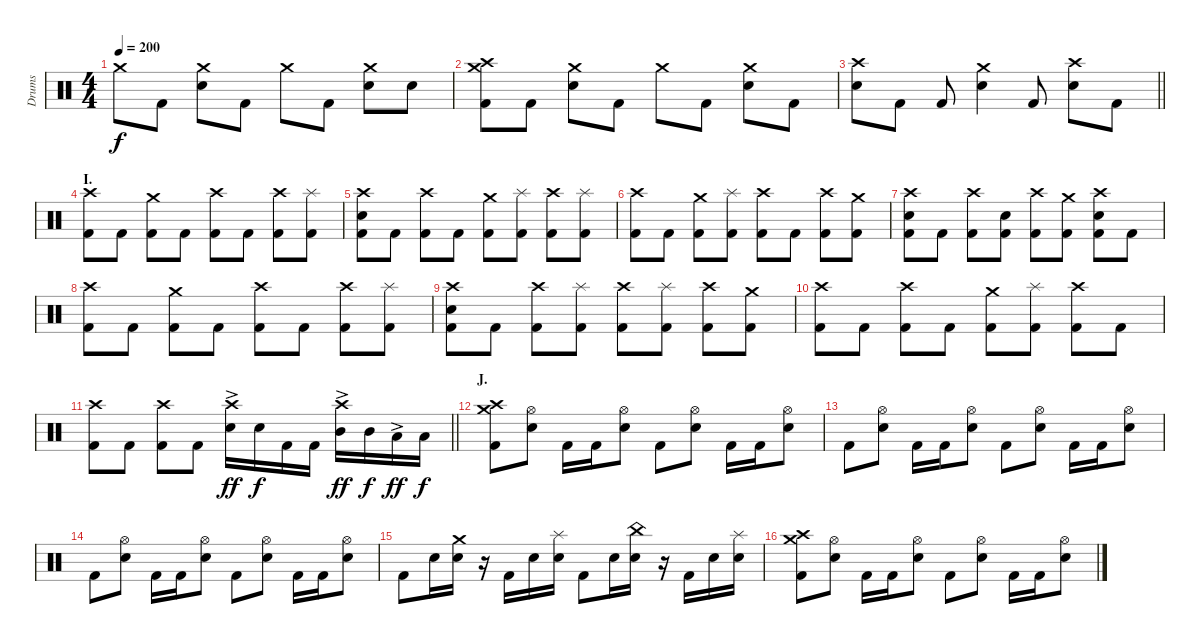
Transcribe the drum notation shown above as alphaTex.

\track ("Drums" "Drums") {instrument percussion}
\staff {score}
\articulation defaults
\ts (4 4)
\tempo 200
\clef neutral
\ks c "Crash medium (hit)".8{dy f} "Kick (hit) 2".8
("Crash medium (hit)" "Electric Snare (hit)").8 "Kick (hit) 2".8 "Crash medium (hit)".8 "Kick (hit) 2".8 ("Crash medium (hit)" "Electric Snare (hit)").8 "Electric Snare (hit)".8 |
("Crash medium (hit)" "Crash high (hit)" "Kick (hit) 2").8 "Kick (hit) 2".8 ("Crash medium (hit)" "Electric Snare (hit)").8 "Kick (hit) 2".8 "Crash medium (hit)".8 "Kick (hit) 2".8 ("Crash medium (hit)" "Electric Snare (hit)").8 "Kick (hit) 2".8 |
\barLineRight lightlight
("Crash high (hit)" "Electric Snare (hit)").8 "Kick (hit) 2".8 "Kick (hit) 2".8 ("Crash medium (hit)" "Electric Snare (hit)").4 "Kick (hit) 2".8 ("Crash high (hit)" "Electric Snare (hit)").8 "Kick (hit) 2".8 |
\section ("" "I.")
("Crash high (hit)" "Kick (hit) 2").8 "Kick (hit) 2".8 ("Crash medium (hit)" "Kick (hit) 2").8 "Kick (hit) 2".8 ("Crash high (hit)" "Kick (hit) 2").8 "Kick (hit) 2".8 ("Crash high (hit)" "Kick (hit) 2").8 ("Splash (hit)" "Kick (hit) 2").8 |
("Crash high (hit)" "Electric Snare (hit)" "Kick (hit) 2").8 "Kick (hit) 2".8 ("Crash high (hit)" "Kick (hit) 2").8 "Kick (hit) 2".8 ("Crash medium (hit)" "Kick (hit) 2").8 ("Splash (hit)" "Kick (hit) 2").8 ("Crash high (hit)" "Kick (hit) 2").8 ("Splash (hit)" "Kick (hit) 2").8 |
("Crash high (hit)" "Kick (hit) 2").8 "Kick (hit) 2".8 ("Crash medium (hit)" "Kick (hit) 2").8 ("Splash (hit)" "Kick (hit) 2").8 ("Crash high (hit)" "Kick (hit) 2").8 "Kick (hit) 2".8 ("Crash high (hit)" "Kick (hit) 2").8 ("Crash medium (hit)" "Kick (hit) 2").8 |
("Crash high (hit)" "Electric Snare (hit)" "Kick (hit) 2").8 "Kick (hit) 2".8 ("Crash high (hit)" "Kick (hit) 2").8 ("Electric Snare (hit)" "Kick (hit) 2").8 ("Crash high (hit)" "Kick (hit) 2").8 ("Crash medium (hit)" "Kick (hit) 2").8 ("Crash high (hit)" "Electric Snare (hit)" "Kick (hit) 2").8 "Kick (hit) 2".8 |
("Crash high (hit)" "Kick (hit) 2").8 "Kick (hit) 2".8 ("Crash medium (hit)" "Kick (hit) 2").8 "Kick (hit) 2".8 ("Crash high (hit)" "Kick (hit) 2").8 "Kick (hit) 2".8 ("Crash high (hit)" "Kick (hit) 2").8 ("Splash (hit)" "Kick (hit) 2").8 |
("Crash high (hit)" "Electric Snare (hit)" "Kick (hit) 2").8 "Kick (hit) 2".8 ("Crash high (hit)" "Kick (hit) 2").8 ("Splash (hit)" "Kick (hit) 2").8 ("Crash high (hit)" "Kick (hit) 2").8 ("Splash (hit)" "Kick (hit) 2").8 ("Crash high (hit)" "Kick (hit) 2").8 ("Crash medium (hit)" "Kick (hit) 2").8 |
("Crash high (hit)" "Kick (hit) 2").8 "Kick (hit) 2".8 ("Crash high (hit)" "Kick (hit) 2").8 "Kick (hit) 2".8 ("Crash medium (hit)" "Kick (hit) 2").8 ("Splash (hit)" "Kick (hit) 2").8 ("Crash high (hit)" "Kick (hit) 2").8 "Kick (hit) 2".8 |
\barLineRight lightlight
("Crash high (hit)" "Kick (hit) 2").8 "Kick (hit) 2".8 ("Crash high (hit)" "Kick (hit) 2").8 "Kick (hit) 2".8 ("Crash high (hit)" "Electric Snare (hit)"{ac}).16{dy ff} "Electric Snare (hit)".16{dy f} "Kick (hit) 2".16 "Kick (hit) 2".16 ("Crash high (hit)" "Mid Tom (hit)"{ac}).16{dy ff} "Mid Tom (hit)".16{dy f} "Low Tom (hit)"{ac}.16{dy ff} "Low Tom (hit)".16{dy f} |
\section ("" "J.")
("Crash medium (hit)" "Crash high (hit)" "Kick (hit) 2").8 ("Hi-Hat (open)" "Electric Snare (hit)").8 "Kick (hit) 2".16 "Kick (hit) 2".16 ("Hi-Hat (open)" "Electric Snare (hit)").8 "Kick (hit) 2".8 ("Hi-Hat (open)" "Electric Snare (hit)").8 "Kick (hit) 2".16 "Kick (hit) 2".16 ("Hi-Hat (open)" "Electric Snare (hit)").8 |
"Kick (hit) 2".8 ("Hi-Hat (open)" "Electric Snare (hit)").8 "Kick (hit) 2".16 "Kick (hit) 2".16 ("Hi-Hat (open)" "Electric Snare (hit)").8 "Kick (hit) 2".8 ("Hi-Hat (open)" "Electric Snare (hit)").8 "Kick (hit) 2".16 "Kick (hit) 2".16 ("Hi-Hat (open)" "Electric Snare (hit)").8 |
"Kick (hit) 2".8 ("Hi-Hat (open)" "Electric Snare (hit)").8 "Kick (hit) 2".16 "Kick (hit) 2".16 ("Hi-Hat (open)" "Electric Snare (hit)").8 "Kick (hit) 2".8 ("Hi-Hat (open)" "Electric Snare (hit)").8 "Kick (hit) 2".16 "Kick (hit) 2".16 ("Hi-Hat (open)" "Electric Snare (hit)").8 |
"Kick (hit) 2".8 "Electric Snare (hit)".16 ("Crash medium (hit)" "Electric Snare (hit)").16 r.16 "Kick (hit) 2".16 "Electric Snare (hit)".16 ("Splash (hit)" "Electric Snare (hit)").16 "Kick (hit) 2".8 "Electric Snare (hit)".16 ("China (hit)" "Electric Snare (hit)").16 r.16 "Kick (hit) 2".16 "Electric Snare (hit)".16 ("Splash (hit)" "Electric Snare (hit)").16 |
("Crash medium (hit)" "Crash high (hit)" "Kick (hit) 2").8 ("Hi-Hat (open)" "Electric Snare (hit)").8 "Kick (hit) 2".16 "Kick (hit) 2".16 ("Hi-Hat (open)" "Electric Snare (hit)").8 "Kick (hit) 2".8 ("Hi-Hat (open)" "Electric Snare (hit)").8 "Kick (hit) 2".16 "Kick (hit) 2".16 ("Hi-Hat (open)" "Electric Snare (hit)").8
